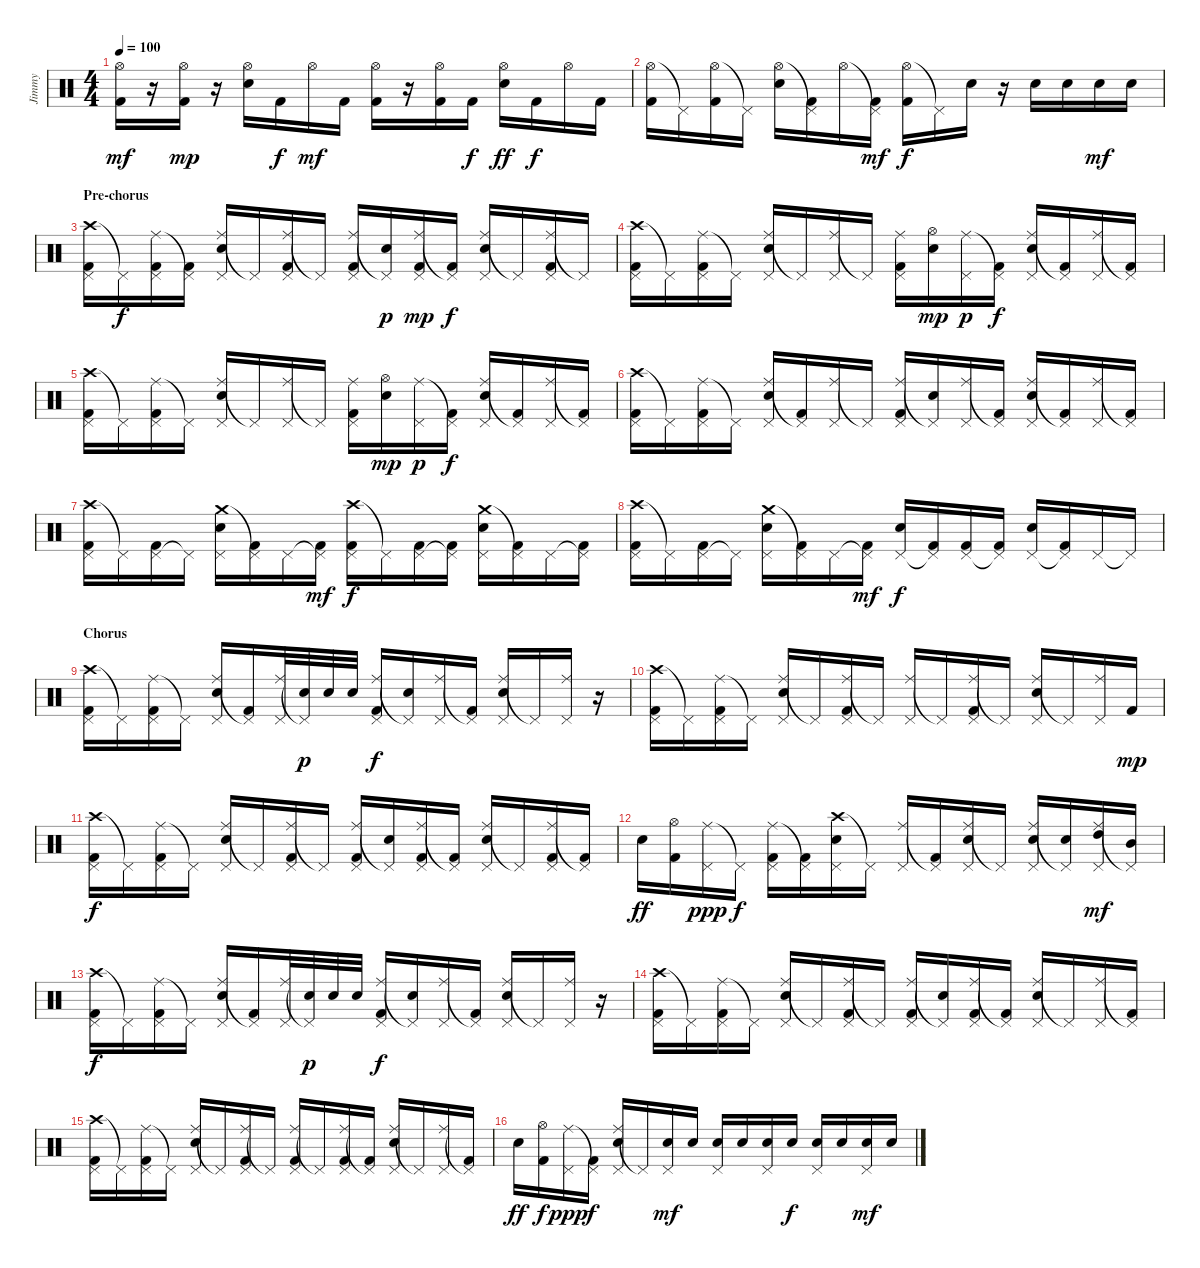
\track ("Jimmy" "Jimmy") {instrument percussion}
\staff {score}
\articulation defaults
\ts (4 4)
\tempo 100
\clef neutral
\ks c
("Hi-Hat (open)" "Kick (hit) 2").16{dy mf} r.16 ("Hi-Hat (open)" "Kick (hit) 2").16{dy mp} r.16 ("Hi-Hat (open)" "Electric Snare (hit)").16 "Kick (hit) 2".16{dy f} "Hi-Hat (open)".16{dy mf} "Kick (hit) 2".16 ("Hi-Hat (open)" "Kick (hit) 2").16 r.16 ("Hi-Hat (open)" "Kick (hit) 2").16 "Kick (hit) 2".16{dy f} ("Hi-Hat (open)" "Electric Snare (hit)").16{dy ff} "Kick (hit) 2".16{dy f} "Hi-Hat (open)".16 "Kick (hit) 2".16 |
("Hi-Hat (open)" "Kick (hit) 2").16 "Pedal Hi-Hat (hit)"{t}.16 ("Hi-Hat (open)" "Kick (hit) 2").16 "Pedal Hi-Hat (hit)"{t}.16 ("Hi-Hat (open)" "Electric Snare (hit)").16 ("Pedal Hi-Hat (hit)"{t} "Kick (hit) 2").16 "Hi-Hat (open)".16 ("Pedal Hi-Hat (hit)"{t} "Kick (hit) 2").16{dy mf} ("Hi-Hat (open)" "Kick (hit) 2").16{dy f} "Pedal Hi-Hat (hit)"{t}.16 "Electric Snare (hit)".16 r.16 "Electric Snare (hit)".16 "Electric Snare (hit)".16 "Electric Snare (hit)".16{dy mf} "Electric Snare (hit)".16 |
\section ("" "Pre-chorus")
("Crash high (hit)" "Pedal Hi-Hat (hit)" "Kick (hit) 2").16 "Pedal Hi-Hat (hit)"{t}.16{dy f} ("Ride (middle)" "Pedal Hi-Hat (hit)" "Kick (hit) 2").16 ("Pedal Hi-Hat (hit)"{t} "Kick (hit) 2").16 ("Ride (middle)" "Pedal Hi-Hat (hit)" "Electric Snare (hit)").16 "Pedal Hi-Hat (hit)"{t}.16 ("Ride (middle)" "Pedal Hi-Hat (hit)" "Kick (hit) 2").16 "Pedal Hi-Hat (hit)"{t}.16 ("Ride (middle)" "Pedal Hi-Hat (hit)" "Kick (hit) 2").16 ("Pedal Hi-Hat (hit)"{t} "Electric Snare (hit)").16{dy p} ("Ride (middle)" "Pedal Hi-Hat (hit)" "Kick (hit) 2").16{dy mp} ("Pedal Hi-Hat (hit)"{t} "Kick (hit) 2").16{dy f} ("Ride (middle)" "Pedal Hi-Hat (hit)" "Electric Snare (hit)").16 "Pedal Hi-Hat (hit)"{t}.16 ("Ride (middle)" "Pedal Hi-Hat (hit)" "Kick (hit) 2").16 "Pedal Hi-Hat (hit)"{t}.16 |
("Crash high (hit)" "Pedal Hi-Hat (hit)" "Kick (hit) 2").16 "Pedal Hi-Hat (hit)"{t}.16 ("Ride (middle)" "Pedal Hi-Hat (hit)" "Kick (hit) 2").16 "Pedal Hi-Hat (hit)"{t}.16 ("Ride (middle)" "Pedal Hi-Hat (hit)" "Electric Snare (hit)").16 "Pedal Hi-Hat (hit)"{t}.16 ("Ride (middle)" "Pedal Hi-Hat (hit)").16 "Pedal Hi-Hat (hit)"{t}.16 ("Ride (middle)" "Pedal Hi-Hat (hit)" "Kick (hit) 2").16 ("Hi-Hat (open)" "Electric Snare (hit)").16{dy mp} ("Ride (middle)" "Pedal Hi-Hat (hit)").16{dy p} ("Pedal Hi-Hat (hit)"{t} "Kick (hit) 2").16{dy f} ("Ride (middle)" "Pedal Hi-Hat (hit)" "Electric Snare (hit)").16 ("Pedal Hi-Hat (hit)"{t} "Kick (hit) 2").16 ("Ride (middle)" "Pedal Hi-Hat (hit)").16 ("Pedal Hi-Hat (hit)"{t} "Kick (hit) 2").16 |
("Crash high (hit)" "Pedal Hi-Hat (hit)" "Kick (hit) 2").16 "Pedal Hi-Hat (hit)"{t}.16 ("Ride (middle)" "Pedal Hi-Hat (hit)" "Kick (hit) 2").16 "Pedal Hi-Hat (hit)"{t}.16 ("Ride (middle)" "Pedal Hi-Hat (hit)" "Electric Snare (hit)").16 "Pedal Hi-Hat (hit)"{t}.16 ("Ride (middle)" "Pedal Hi-Hat (hit)").16 "Pedal Hi-Hat (hit)"{t}.16 ("Ride (middle)" "Pedal Hi-Hat (hit)" "Kick (hit) 2").16 ("Hi-Hat (open)" "Electric Snare (hit)").16{dy mp} ("Ride (middle)" "Pedal Hi-Hat (hit)").16{dy p} ("Pedal Hi-Hat (hit)"{t} "Kick (hit) 2").16{dy f} ("Ride (middle)" "Pedal Hi-Hat (hit)" "Electric Snare (hit)").16 ("Pedal Hi-Hat (hit)"{t} "Kick (hit) 2").16 ("Ride (middle)" "Pedal Hi-Hat (hit)").16 ("Pedal Hi-Hat (hit)"{t} "Kick (hit) 2").16 |
("Crash high (hit)" "Pedal Hi-Hat (hit)" "Kick (hit) 2").16 "Pedal Hi-Hat (hit)"{t}.16 ("Ride (middle)" "Pedal Hi-Hat (hit)" "Kick (hit) 2").16 "Pedal Hi-Hat (hit)"{t}.16 ("Ride (middle)" "Pedal Hi-Hat (hit)" "Electric Snare (hit)").16 ("Pedal Hi-Hat (hit)"{t} "Kick (hit) 2").16 ("Ride (middle)" "Pedal Hi-Hat (hit)").16 "Pedal Hi-Hat (hit)"{t}.16 ("Ride (middle)" "Pedal Hi-Hat (hit)" "Kick (hit) 2").16 ("Pedal Hi-Hat (hit)"{t} "Electric Snare (hit)").16 ("Ride (middle)" "Pedal Hi-Hat (hit)").16 ("Pedal Hi-Hat (hit)"{t} "Kick (hit) 2").16 ("Ride (middle)" "Pedal Hi-Hat (hit)" "Electric Snare (hit)").16 ("Pedal Hi-Hat (hit)"{t} "Kick (hit) 2").16 ("Ride (middle)" "Pedal Hi-Hat (hit)").16 ("Pedal Hi-Hat (hit)"{t} "Kick (hit) 2").16 |
("Crash high (hit)" "Pedal Hi-Hat (hit)" "Kick (hit) 2").16 "Pedal Hi-Hat (hit)"{t}.16 ("Pedal Hi-Hat (hit)" "Kick (hit) 2").16 "Pedal Hi-Hat (hit)"{t}.16 ("Crash medium (hit)" "Pedal Hi-Hat (hit)" "Electric Snare (hit)").16 ("Pedal Hi-Hat (hit)"{t} "Kick (hit) 2").16 "Pedal Hi-Hat (hit)".16 ("Pedal Hi-Hat (hit)"{t} "Kick (hit) 2").16{dy mf} ("Crash high (hit)" "Pedal Hi-Hat (hit)" "Kick (hit) 2").16{dy f} "Pedal Hi-Hat (hit)"{t}.16 ("Pedal Hi-Hat (hit)" "Kick (hit) 2").16 ("Pedal Hi-Hat (hit)"{t} "Kick (hit) 2").16 ("Crash medium (hit)" "Pedal Hi-Hat (hit)" "Electric Snare (hit)").16 ("Pedal Hi-Hat (hit)"{t} "Kick (hit) 2").16 "Pedal Hi-Hat (hit)".16 ("Pedal Hi-Hat (hit)"{t} "Kick (hit) 2").16 |
("Crash high (hit)" "Pedal Hi-Hat (hit)" "Kick (hit) 2").16 "Pedal Hi-Hat (hit)"{t}.16 ("Pedal Hi-Hat (hit)" "Kick (hit) 2").16 "Pedal Hi-Hat (hit)"{t}.16 ("Crash medium (hit)" "Pedal Hi-Hat (hit)" "Electric Snare (hit)").16 ("Pedal Hi-Hat (hit)"{t} "Kick (hit) 2").16 "Pedal Hi-Hat (hit)".16 ("Pedal Hi-Hat (hit)"{t} "Kick (hit) 2").16{dy mf} ("Pedal Hi-Hat (hit)" "Electric Snare (hit)").16{dy f} ("Pedal Hi-Hat (hit)"{t} "Kick (hit) 2").16 ("Pedal Hi-Hat (hit)" "Kick (hit) 2").16 ("Pedal Hi-Hat (hit)"{t} "Kick (hit) 2").16 ("Pedal Hi-Hat (hit)" "Electric Snare (hit)").16 ("Pedal Hi-Hat (hit)"{t} "Kick (hit) 2").16 "Pedal Hi-Hat (hit)".16 "Pedal Hi-Hat (hit)"{t}.16 |
\section ("" "Chorus")
("Crash high (hit)" "Pedal Hi-Hat (hit)" "Kick (hit) 2").16 "Pedal Hi-Hat (hit)"{t}.16 ("Ride (middle)" "Pedal Hi-Hat (hit)" "Kick (hit) 2").16 "Pedal Hi-Hat (hit)"{t}.16 ("Ride (middle)" "Pedal Hi-Hat (hit)" "Electric Snare (hit)").16 ("Pedal Hi-Hat (hit)"{t} "Kick (hit) 2").16 ("Ride (middle)" "Pedal Hi-Hat (hit)").32 ("Pedal Hi-Hat (hit)"{t} "Electric Snare (hit)").32{dy p} "Electric Snare (hit)".32 "Electric Snare (hit)".32 ("Ride (middle)" "Pedal Hi-Hat (hit)" "Kick (hit) 2").16{dy f} ("Pedal Hi-Hat (hit)"{t} "Electric Snare (hit)").16 ("Ride (middle)" "Pedal Hi-Hat (hit)").16 ("Pedal Hi-Hat (hit)"{t} "Kick (hit) 2").16 ("Ride (middle)" "Pedal Hi-Hat (hit)" "Electric Snare (hit)").16 "Pedal Hi-Hat (hit)"{t}.16 ("Ride (middle)" "Pedal Hi-Hat (hit)").16 r.16 |
("Crash high (hit)" "Pedal Hi-Hat (hit)" "Kick (hit) 2").16 "Pedal Hi-Hat (hit)"{t}.16 ("Ride (middle)" "Pedal Hi-Hat (hit)" "Kick (hit) 2").16 "Pedal Hi-Hat (hit)"{t}.16 ("Ride (middle)" "Pedal Hi-Hat (hit)" "Electric Snare (hit)").16 "Pedal Hi-Hat (hit)"{t}.16 ("Ride (middle)" "Pedal Hi-Hat (hit)" "Kick (hit) 2").16 "Pedal Hi-Hat (hit)"{t}.16 ("Ride (middle)" "Pedal Hi-Hat (hit)").16 "Pedal Hi-Hat (hit)"{t}.16 ("Ride (middle)" "Pedal Hi-Hat (hit)" "Kick (hit) 2").16 "Pedal Hi-Hat (hit)"{t}.16 ("Ride (middle)" "Pedal Hi-Hat (hit)" "Electric Snare (hit)").16 "Pedal Hi-Hat (hit)"{t}.16 ("Ride (middle)" "Pedal Hi-Hat (hit)").16 "Kick (hit) 2".16{dy mp} |
("Crash high (hit)" "Pedal Hi-Hat (hit)" "Kick (hit) 2").16{dy f} "Pedal Hi-Hat (hit)"{t}.16 ("Ride (middle)" "Pedal Hi-Hat (hit)" "Kick (hit) 2").16 "Pedal Hi-Hat (hit)"{t}.16 ("Ride (middle)" "Pedal Hi-Hat (hit)" "Electric Snare (hit)").16 "Pedal Hi-Hat (hit)"{t}.16 ("Ride (middle)" "Pedal Hi-Hat (hit)" "Kick (hit) 2").16 "Pedal Hi-Hat (hit)"{t}.16 ("Ride (middle)" "Pedal Hi-Hat (hit)" "Kick (hit) 2").16 ("Pedal Hi-Hat (hit)"{t} "Electric Snare (hit)").16 ("Ride (middle)" "Pedal Hi-Hat (hit)" "Kick (hit) 2").16 ("Pedal Hi-Hat (hit)"{t} "Kick (hit) 2").16 ("Ride (middle)" "Pedal Hi-Hat (hit)" "Electric Snare (hit)").16 "Pedal Hi-Hat (hit)"{t}.16 ("Ride (middle)" "Pedal Hi-Hat (hit)" "Kick (hit) 2").16 ("Pedal Hi-Hat (hit)"{t} "Kick (hit) 2").16 |
"Electric Snare (hit)".16{dy ff} ("Hi-Hat (open)" "Kick (hit) 2").16 ("Ride (middle)" "Pedal Hi-Hat (hit)").16{dy ppp} "Pedal Hi-Hat (hit)"{t}.16{dy f} ("Ride (middle)" "Pedal Hi-Hat (hit)" "Kick (hit) 2").16 ("Pedal Hi-Hat (hit)"{t} "Kick (hit) 2").16 ("Crash high (hit)" "Pedal Hi-Hat (hit)" "Electric Snare (hit)").16 "Pedal Hi-Hat (hit)"{t}.16 ("Ride (middle)" "Pedal Hi-Hat (hit)").16 ("Pedal Hi-Hat (hit)"{t} "Kick (hit) 2").16 ("Ride (middle)" "Pedal Hi-Hat (hit)" "Electric Snare (hit)").16 "Pedal Hi-Hat (hit)"{t}.16 ("Ride (middle)" "Pedal Hi-Hat (hit)" "Electric Snare (hit)").16 ("Pedal Hi-Hat (hit)"{t} "Electric Snare (hit)").16 ("Ride (middle)" "Pedal Hi-Hat (hit)" "High Tom (hit)").16{dy mf} ("Pedal Hi-Hat (hit)"{t} "Mid Tom (hit)").16 |
("Crash high (hit)" "Pedal Hi-Hat (hit)" "Kick (hit) 2").16{dy f} "Pedal Hi-Hat (hit)"{t}.16 ("Ride (middle)" "Pedal Hi-Hat (hit)" "Kick (hit) 2").16 "Pedal Hi-Hat (hit)"{t}.16 ("Ride (middle)" "Pedal Hi-Hat (hit)" "Electric Snare (hit)").16 ("Pedal Hi-Hat (hit)"{t} "Kick (hit) 2").16 ("Ride (middle)" "Pedal Hi-Hat (hit)").32 ("Pedal Hi-Hat (hit)"{t} "Electric Snare (hit)").32{dy p} "Electric Snare (hit)".32 "Electric Snare (hit)".32 ("Ride (middle)" "Pedal Hi-Hat (hit)" "Kick (hit) 2").16{dy f} ("Pedal Hi-Hat (hit)"{t} "Electric Snare (hit)").16 ("Ride (middle)" "Pedal Hi-Hat (hit)").16 ("Pedal Hi-Hat (hit)"{t} "Kick (hit) 2").16 ("Ride (middle)" "Pedal Hi-Hat (hit)" "Electric Snare (hit)").16 "Pedal Hi-Hat (hit)"{t}.16 ("Ride (middle)" "Pedal Hi-Hat (hit)").16 r.16 |
("Crash high (hit)" "Pedal Hi-Hat (hit)" "Kick (hit) 2").16 "Pedal Hi-Hat (hit)"{t}.16 ("Ride (middle)" "Pedal Hi-Hat (hit)" "Kick (hit) 2").16 "Pedal Hi-Hat (hit)"{t}.16 ("Ride (middle)" "Pedal Hi-Hat (hit)" "Electric Snare (hit)").16 "Pedal Hi-Hat (hit)"{t}.16 ("Ride (middle)" "Pedal Hi-Hat (hit)" "Kick (hit) 2").16 "Pedal Hi-Hat (hit)"{t}.16 ("Ride (middle)" "Pedal Hi-Hat (hit)" "Kick (hit) 2").16 ("Pedal Hi-Hat (hit)"{t} "Electric Snare (hit)").16 ("Ride (middle)" "Pedal Hi-Hat (hit)" "Kick (hit) 2").16 ("Pedal Hi-Hat (hit)"{t} "Kick (hit) 2").16 ("Ride (middle)" "Pedal Hi-Hat (hit)" "Electric Snare (hit)").16 "Pedal Hi-Hat (hit)"{t}.16 ("Ride (middle)" "Pedal Hi-Hat (hit)").16 ("Pedal Hi-Hat (hit)"{t} "Kick (hit) 2").16 |
("Crash high (hit)" "Pedal Hi-Hat (hit)" "Kick (hit) 2").16 "Pedal Hi-Hat (hit)"{t}.16 ("Ride (middle)" "Pedal Hi-Hat (hit)" "Kick (hit) 2").16 "Pedal Hi-Hat (hit)"{t}.16 ("Ride (middle)" "Pedal Hi-Hat (hit)" "Electric Snare (hit)").16 "Pedal Hi-Hat (hit)"{t}.16 ("Ride (middle)" "Pedal Hi-Hat (hit)" "Kick (hit) 2").16 "Pedal Hi-Hat (hit)"{t}.16 ("Ride (middle)" "Pedal Hi-Hat (hit)" "Kick (hit) 2").16 "Pedal Hi-Hat (hit)"{t}.16 ("Ride (middle)" "Pedal Hi-Hat (hit)" "Kick (hit) 2").16 ("Pedal Hi-Hat (hit)"{t} "Kick (hit) 2").16 ("Ride (middle)" "Pedal Hi-Hat (hit)" "Electric Snare (hit)").16 "Pedal Hi-Hat (hit)"{t}.16 ("Ride (middle)" "Pedal Hi-Hat (hit)").16 ("Pedal Hi-Hat (hit)"{t} "Kick (hit) 2").16 |
"Electric Snare (hit)".16{dy ff} ("Hi-Hat (open)" "Kick (hit) 2").16{dy f} ("Ride (middle)" "Pedal Hi-Hat (hit)").16{dy ppp} ("Pedal Hi-Hat (hit)"{t} "Kick (hit) 2").16{dy f} ("Ride (middle)" "Pedal Hi-Hat (hit)" "Electric Snare (hit)").16 "Pedal Hi-Hat (hit)"{t}.16 ("Pedal Hi-Hat (hit)" "Electric Snare (hit)").16{dy mf} "Electric Snare (hit)".16 ("Pedal Hi-Hat (hit)" "Electric Snare (hit)").16 "Electric Snare (hit)".16 ("Pedal Hi-Hat (hit)" "Electric Snare (hit)").16 "Electric Snare (hit)".16{dy f} ("Pedal Hi-Hat (hit)" "Electric Snare (hit)").16 "Electric Snare (hit)".16 ("Pedal Hi-Hat (hit)" "Electric Snare (hit)").16{dy mf} "Electric Snare (hit)".16
